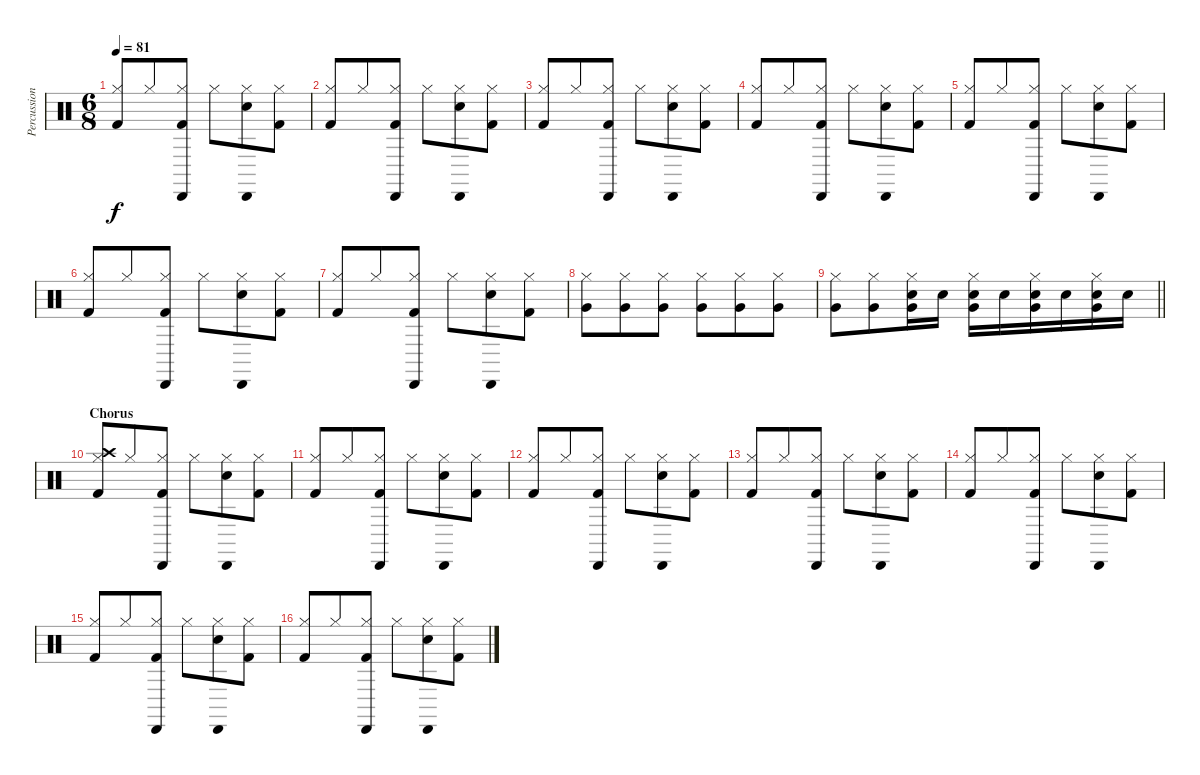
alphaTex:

\track ("Percussion" "Percussion") {instrument percussion}
\staff {score}
\articulation defaults
\ts (6 8)
\tempo 81
\clef neutral
\ks c
("Hi-Hat (closed)" "Kick (hit) 2").8{dy f} "Hi-Hat (closed)".8 ("Hi-Hat (closed)" "Kick (hit) 2" "Cabasa (hit)").8 "Hi-Hat (closed)".8 ("Hi-Hat (closed)" "Snare (hit) 2" "Cabasa (hit)").8 ("Hi-Hat (closed)" "Kick (hit) 2").8 |
("Hi-Hat (closed)" "Kick (hit) 2").8 "Hi-Hat (closed)".8 ("Hi-Hat (closed)" "Kick (hit) 2" "Cabasa (hit)").8 "Hi-Hat (closed)".8 ("Hi-Hat (closed)" "Snare (hit) 2" "Cabasa (hit)").8 ("Hi-Hat (closed)" "Kick (hit) 2").8 |
("Hi-Hat (closed)" "Kick (hit) 2").8 "Hi-Hat (closed)".8 ("Hi-Hat (closed)" "Kick (hit) 2" "Cabasa (hit)").8 "Hi-Hat (closed)".8 ("Hi-Hat (closed)" "Snare (hit) 2" "Cabasa (hit)").8 ("Hi-Hat (closed)" "Kick (hit) 2").8 |
("Hi-Hat (closed)" "Kick (hit) 2").8 "Hi-Hat (closed)".8 ("Hi-Hat (closed)" "Kick (hit) 2" "Cabasa (hit)").8 "Hi-Hat (closed)".8 ("Hi-Hat (closed)" "Snare (hit) 2" "Cabasa (hit)").8 ("Hi-Hat (closed)" "Kick (hit) 2").8 |
("Hi-Hat (closed)" "Kick (hit) 2").8 "Hi-Hat (closed)".8 ("Hi-Hat (closed)" "Kick (hit) 2" "Cabasa (hit)").8 "Hi-Hat (closed)".8 ("Hi-Hat (closed)" "Snare (hit) 2" "Cabasa (hit)").8 ("Hi-Hat (closed)" "Kick (hit) 2").8 |
("Hi-Hat (closed)" "Kick (hit) 2").8 "Hi-Hat (closed)".8 ("Hi-Hat (closed)" "Kick (hit) 2" "Cabasa (hit)").8 "Hi-Hat (closed)".8 ("Hi-Hat (closed)" "Snare (hit) 2" "Cabasa (hit)").8 ("Hi-Hat (closed)" "Kick (hit) 2").8 |
("Hi-Hat (closed)" "Kick (hit) 2").8 "Hi-Hat (closed)".8 ("Hi-Hat (closed)" "Kick (hit) 2" "Cabasa (hit)").8 "Hi-Hat (closed)".8 ("Hi-Hat (closed)" "Snare (hit) 2" "Cabasa (hit)").8 ("Hi-Hat (closed)" "Kick (hit) 2").8 |
("Hi-Hat (closed)" "Very Low Tom (hit)").8 ("Hi-Hat (closed)" "Very Low Tom (hit)").8 ("Hi-Hat (closed)" "Very Low Tom (hit)").8 ("Hi-Hat (closed)" "Very Low Tom (hit)").8 ("Hi-Hat (closed)" "Very Low Tom (hit)").8 ("Hi-Hat (closed)" "Very Low Tom (hit)").8 |
\barLineRight lightlight
("Hi-Hat (closed)" "Very Low Tom (hit)").8 ("Hi-Hat (closed)" "Very Low Tom (hit)").8 ("Hi-Hat (closed)" "Very Low Tom (hit)" "Snare (hit) 2").16 "Snare (hit) 2".16 ("Hi-Hat (closed)" "Very Low Tom (hit)" "Snare (hit) 2").16 "Snare (hit) 2".16 ("Hi-Hat (closed)" "Very Low Tom (hit)" "Snare (hit) 2").16 "Snare (hit) 2".16 ("Hi-Hat (closed)" "Very Low Tom (hit)" "Snare (hit) 2").16 "Snare (hit) 2".16 |
\section ("" "Chorus")
("Hi-Hat (closed)" "Kick (hit) 2" "Crash high (hit)").8 "Hi-Hat (closed)".8 ("Hi-Hat (closed)" "Kick (hit) 2" "Cabasa (hit)").8 "Hi-Hat (closed)".8 ("Hi-Hat (closed)" "Snare (hit) 2" "Cabasa (hit)").8 ("Hi-Hat (closed)" "Kick (hit) 2").8 |
("Hi-Hat (closed)" "Kick (hit) 2").8 "Hi-Hat (closed)".8 ("Hi-Hat (closed)" "Kick (hit) 2" "Cabasa (hit)").8 "Hi-Hat (closed)".8 ("Hi-Hat (closed)" "Snare (hit) 2" "Cabasa (hit)").8 ("Hi-Hat (closed)" "Kick (hit) 2").8 |
("Hi-Hat (closed)" "Kick (hit) 2").8 "Hi-Hat (closed)".8 ("Hi-Hat (closed)" "Kick (hit) 2" "Cabasa (hit)").8 "Hi-Hat (closed)".8 ("Hi-Hat (closed)" "Snare (hit) 2" "Cabasa (hit)").8 ("Hi-Hat (closed)" "Kick (hit) 2").8 |
("Hi-Hat (closed)" "Kick (hit) 2").8 "Hi-Hat (closed)".8 ("Hi-Hat (closed)" "Kick (hit) 2" "Cabasa (hit)").8 "Hi-Hat (closed)".8 ("Hi-Hat (closed)" "Snare (hit) 2" "Cabasa (hit)").8 ("Hi-Hat (closed)" "Kick (hit) 2").8 |
("Hi-Hat (closed)" "Kick (hit) 2").8 "Hi-Hat (closed)".8 ("Hi-Hat (closed)" "Kick (hit) 2" "Cabasa (hit)").8 "Hi-Hat (closed)".8 ("Hi-Hat (closed)" "Snare (hit) 2" "Cabasa (hit)").8 ("Hi-Hat (closed)" "Kick (hit) 2").8 |
("Hi-Hat (closed)" "Kick (hit) 2").8 "Hi-Hat (closed)".8 ("Hi-Hat (closed)" "Kick (hit) 2" "Cabasa (hit)").8 "Hi-Hat (closed)".8 ("Hi-Hat (closed)" "Snare (hit) 2" "Cabasa (hit)").8 ("Hi-Hat (closed)" "Kick (hit) 2").8 |
("Hi-Hat (closed)" "Kick (hit) 2").8 "Hi-Hat (closed)".8 ("Hi-Hat (closed)" "Kick (hit) 2" "Cabasa (hit)").8 "Hi-Hat (closed)".8 ("Hi-Hat (closed)" "Snare (hit) 2" "Cabasa (hit)").8 ("Hi-Hat (closed)" "Kick (hit) 2").8
